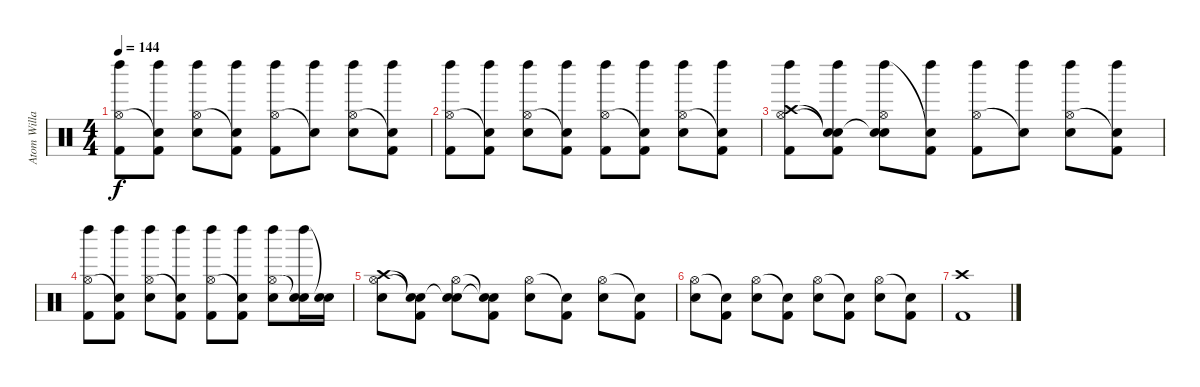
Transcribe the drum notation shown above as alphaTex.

\track ("Atom Willard (Drums)" "Atom Willa") {instrument percussion}
\staff {score}
\articulation defaults
\ts (4 4)
\tempo 144
\clef neutral
\ks c
("Left Maraca (hit)" "Hi-Hat (open)" "Kick (hit) 2").8{dy f} ("Left Maraca (hit)" "Snare (hit)"{t} "Kick (hit) 2").8 ("Left Maraca (hit)" "Hi-Hat (open)" "Electric Snare (hit)").8 ("Left Maraca (hit)" "Snare (hit)"{t} "Kick (hit) 2").8 ("Left Maraca (hit)" "Hi-Hat (open)" "Kick (hit) 2").8 ("Left Maraca (hit)" "Snare (hit)"{t}).8 ("Left Maraca (hit)" "Hi-Hat (open)" "Electric Snare (hit)").8 ("Left Maraca (hit)" "Snare (hit)"{t} "Kick (hit) 2").8 |
("Left Maraca (hit)" "Hi-Hat (open)" "Kick (hit) 2").8 ("Left Maraca (hit)" "Snare (hit)"{t} "Kick (hit) 2").8 ("Left Maraca (hit)" "Hi-Hat (open)" "Electric Snare (hit)").8 ("Left Maraca (hit)" "Snare (hit)"{t} "Kick (hit) 2").8 ("Left Maraca (hit)" "Hi-Hat (open)" "Kick (hit) 2").8 ("Left Maraca (hit)" "Snare (hit)"{t} "Kick (hit) 2").8 ("Left Maraca (hit)" "Hi-Hat (open)" "Electric Snare (hit)").8 ("Left Maraca (hit)" "Snare (hit)"{t} "Kick (hit) 2").8 |
("Crash high (hit)" "Left Maraca (hit)" "Hi-Hat (open)" "Kick (hit) 2").8 ("Snare (hit)"{t} "Left Maraca (hit)" "Snare (hit)"{t} "Kick (hit) 2").8 ("Snare (hit)"{t} "Left Maraca (hit)" "Hi-Hat (open)" "Electric Snare (hit)").8 ("Left Maraca (hit)" "Snare (hit)"{t} "Kick (hit) 2").8 ("Left Maraca (hit)" "Hi-Hat (open)" "Kick (hit) 2").8 ("Left Maraca (hit)" "Snare (hit)"{t}).8 ("Left Maraca (hit)" "Hi-Hat (open)" "Electric Snare (hit)").8 ("Left Maraca (hit)" "Snare (hit)"{t} "Kick (hit) 2").8 |
("Left Maraca (hit)" "Hi-Hat (open)" "Kick (hit) 2").8 ("Left Maraca (hit)" "Snare (hit)"{t} "Kick (hit) 2").8 ("Left Maraca (hit)" "Hi-Hat (open)" "Electric Snare (hit)").8 ("Left Maraca (hit)" "Snare (hit)"{t} "Kick (hit) 2").8 ("Left Maraca (hit)" "Hi-Hat (open)" "Kick (hit) 2").8 ("Left Maraca (hit)" "Snare (hit)"{t} "Kick (hit) 2").8 ("Left Maraca (hit)" "Hi-Hat (open)" "Electric Snare (hit)").8 ("Left Maraca (hit)" "Snare (hit)"{t} "Electric Snare (hit)").16 ("Snare (hit)"{t} "Electric Snare (hit)").16 |
("Crash high (hit)" "Hi-Hat (open)" "Electric Snare (hit)").8 ("Snare (hit)"{t} "Snare (hit)"{t} "Kick (hit) 2").8 ("Snare (hit)"{t} "Hi-Hat (open)" "Electric Snare (hit)").8 ("Snare (hit)"{t} "Snare (hit)"{t} "Kick (hit) 2").8 ("Hi-Hat (open)" "Electric Snare (hit)").8 ("Snare (hit)"{t} "Kick (hit) 2").8 ("Hi-Hat (open)" "Electric Snare (hit)").8 ("Snare (hit)"{t} "Kick (hit) 2").8 |
("Hi-Hat (open)" "Electric Snare (hit)").8 ("Snare (hit)"{t} "Kick (hit) 2").8 ("Hi-Hat (open)" "Electric Snare (hit)").8 ("Snare (hit)"{t} "Kick (hit) 2").8 ("Hi-Hat (open)" "Electric Snare (hit)").8 ("Snare (hit)"{t} "Kick (hit) 2").8 ("Hi-Hat (open)" "Electric Snare (hit)").8 ("Snare (hit)"{t} "Kick (hit) 2").8 |
("Crash high (hit)" "Kick (hit) 2").1
